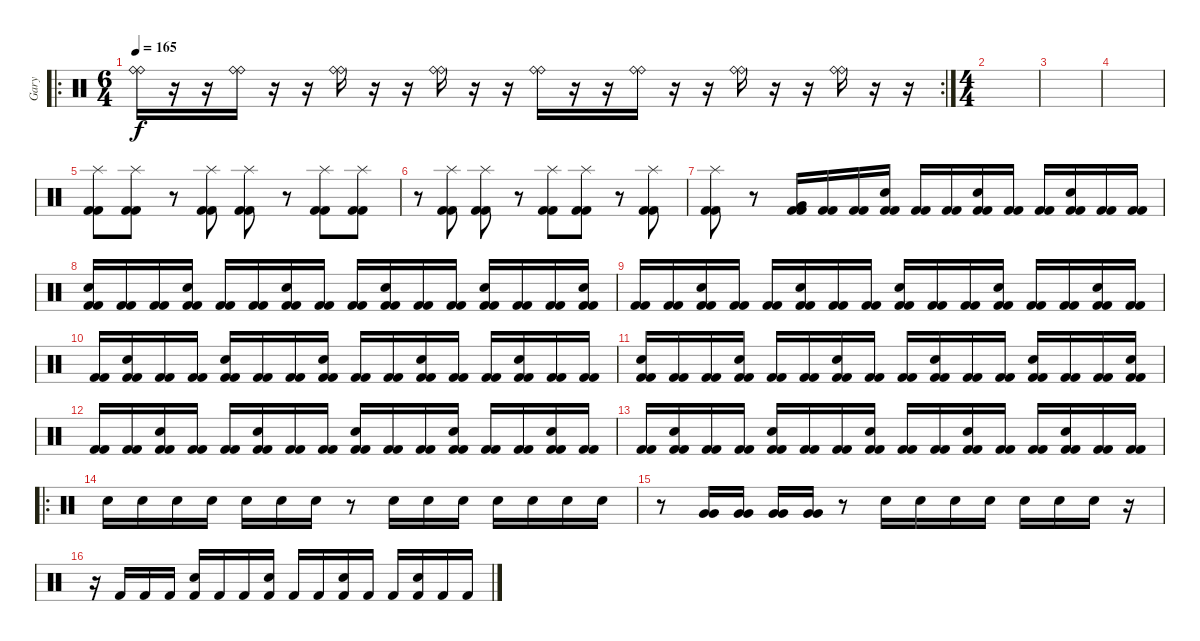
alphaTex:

\track ("Gary" "Gary") {instrument percussion}
\staff {score}
\articulation defaults
\ro
\rc 2
\ts (6 4)
\tempo 165
\clef neutral
\ks c
("Ride (bell)" "Ride (bell)").16{dy f} r.16 r.16 ("Ride (bell)" "Ride (bell)").16 r.16 r.16 ("Ride (bell)" "Ride (bell)").16 r.16 r.16 ("Ride (bell)" "Ride (bell)").16 r.16 r.16 ("Ride (bell)" "Ride (bell)").16 r.16 r.16 ("Ride (bell)" "Ride (bell)").16 r.16 r.16 ("Ride (bell)" "Ride (bell)").16 r.16 r.16 ("Ride (bell)" "Ride (bell)").16 r.16 r.16 |
\ts (4 4)
|
|
|
("Splash (hit)" "Kick (hit) 2" "Kick (hit) 2").8 ("Splash (hit)" "Kick (hit) 2" "Kick (hit) 2").8 r.8 ("Splash (hit)" "Kick (hit) 2" "Kick (hit) 2").8 ("Splash (hit)" "Kick (hit) 2" "Kick (hit) 2").8 r.8 ("Splash (hit)" "Kick (hit) 2" "Kick (hit) 2").8 ("Splash (hit)" "Kick (hit) 2" "Kick (hit) 2").8 |
r.8 ("Splash (hit)" "Kick (hit) 2" "Kick (hit) 2").8 ("Splash (hit)" "Kick (hit) 2" "Kick (hit) 2").8 r.8 ("Splash (hit)" "Kick (hit) 2" "Kick (hit) 2").8 ("Splash (hit)" "Kick (hit) 2" "Kick (hit) 2").8 r.8 ("Splash (hit)" "Kick (hit) 2" "Kick (hit) 2").8 |
("Splash (hit)" "Kick (hit) 2" "Kick (hit) 2").8 r.8 ("Kick (hit) 2" "Very Low Tom (hit)" "Kick (hit) 2").16 ("Kick (hit) 2" "Kick (hit) 2").16 ("Kick (hit) 2" "Kick (hit) 2").16 ("Kick (hit) 2" "Electric Snare (hit)" "Kick (hit) 2").16 ("Kick (hit) 2" "Kick (hit) 2").16 ("Kick (hit) 2" "Kick (hit) 2").16 ("Kick (hit) 2" "Snare (hit) 2" "Kick (hit) 2").16 ("Kick (hit) 2" "Kick (hit) 2").16 ("Kick (hit) 2" "Kick (hit) 2").16 ("Kick (hit) 2" "Snare (hit) 2" "Kick (hit) 2").16 ("Kick (hit) 2" "Kick (hit) 2").16 ("Kick (hit) 2" "Kick (hit) 2").16 |
("Kick (hit) 2" "Snare (hit) 2" "Kick (hit) 2").16 ("Kick (hit) 2" "Kick (hit) 2").16 ("Kick (hit) 2" "Kick (hit) 2").16 ("Kick (hit) 2" "Snare (hit) 2" "Kick (hit) 2").16 ("Kick (hit) 2" "Kick (hit) 2").16 ("Kick (hit) 2" "Kick (hit) 2").16 ("Kick (hit) 2" "Snare (hit) 2" "Kick (hit) 2").16 ("Kick (hit) 2" "Kick (hit) 2").16 ("Kick (hit) 2" "Kick (hit) 2").16 ("Kick (hit) 2" "Snare (hit) 2" "Kick (hit) 2").16 ("Kick (hit) 2" "Kick (hit) 2").16 ("Kick (hit) 2" "Kick (hit) 2").16 ("Kick (hit) 2" "Snare (hit) 2" "Kick (hit) 2").16 ("Kick (hit) 2" "Kick (hit) 2").16 ("Kick (hit) 2" "Kick (hit) 2").16 ("Kick (hit) 2" "Snare (hit) 2" "Kick (hit) 2").16 |
("Kick (hit) 2" "Kick (hit) 2").16 ("Kick (hit) 2" "Kick (hit) 2").16 ("Kick (hit) 2" "Snare (hit) 2" "Kick (hit) 2").16 ("Kick (hit) 2" "Kick (hit) 2").16 ("Kick (hit) 2" "Kick (hit) 2").16 ("Kick (hit) 2" "Snare (hit) 2" "Kick (hit) 2").16 ("Kick (hit) 2" "Kick (hit) 2").16 ("Kick (hit) 2" "Kick (hit) 2").16 ("Kick (hit) 2" "Snare (hit) 2" "Kick (hit) 2").16 ("Kick (hit) 2" "Kick (hit) 2").16 ("Kick (hit) 2" "Kick (hit) 2").16 ("Kick (hit) 2" "Snare (hit) 2" "Kick (hit) 2").16 ("Kick (hit) 2" "Kick (hit) 2").16 ("Kick (hit) 2" "Kick (hit) 2").16 ("Kick (hit) 2" "Snare (hit) 2" "Kick (hit) 2").16 ("Kick (hit) 2" "Kick (hit) 2").16 |
("Kick (hit) 2" "Kick (hit) 2").16 ("Kick (hit) 2" "Snare (hit) 2" "Kick (hit) 2").16 ("Kick (hit) 2" "Kick (hit) 2").16 ("Kick (hit) 2" "Kick (hit) 2").16 ("Kick (hit) 2" "Snare (hit) 2" "Kick (hit) 2").16 ("Kick (hit) 2" "Kick (hit) 2").16 ("Kick (hit) 2" "Kick (hit) 2").16 ("Kick (hit) 2" "Snare (hit) 2" "Kick (hit) 2").16 ("Kick (hit) 2" "Kick (hit) 2").16 ("Kick (hit) 2" "Kick (hit) 2").16 ("Kick (hit) 2" "Snare (hit) 2" "Kick (hit) 2").16 ("Kick (hit) 2" "Kick (hit) 2").16 ("Kick (hit) 2" "Kick (hit) 2").16 ("Kick (hit) 2" "Snare (hit) 2" "Kick (hit) 2").16 ("Kick (hit) 2" "Kick (hit) 2").16 ("Kick (hit) 2" "Kick (hit) 2").16 |
("Kick (hit) 2" "Snare (hit) 2" "Kick (hit) 2").16 ("Kick (hit) 2" "Kick (hit) 2").16 ("Kick (hit) 2" "Kick (hit) 2").16 ("Kick (hit) 2" "Snare (hit) 2" "Kick (hit) 2").16 ("Kick (hit) 2" "Kick (hit) 2").16 ("Kick (hit) 2" "Kick (hit) 2").16 ("Kick (hit) 2" "Snare (hit) 2" "Kick (hit) 2").16 ("Kick (hit) 2" "Kick (hit) 2").16 ("Kick (hit) 2" "Kick (hit) 2").16 ("Kick (hit) 2" "Snare (hit) 2" "Kick (hit) 2").16 ("Kick (hit) 2" "Kick (hit) 2").16 ("Kick (hit) 2" "Kick (hit) 2").16 ("Kick (hit) 2" "Snare (hit) 2" "Kick (hit) 2").16 ("Kick (hit) 2" "Kick (hit) 2").16 ("Kick (hit) 2" "Kick (hit) 2").16 ("Kick (hit) 2" "Snare (hit) 2" "Kick (hit) 2").16 |
("Kick (hit) 2" "Kick (hit) 2").16 ("Kick (hit) 2" "Kick (hit) 2").16 ("Kick (hit) 2" "Snare (hit) 2" "Kick (hit) 2").16 ("Kick (hit) 2" "Kick (hit) 2").16 ("Kick (hit) 2" "Kick (hit) 2").16 ("Kick (hit) 2" "Snare (hit) 2" "Kick (hit) 2").16 ("Kick (hit) 2" "Kick (hit) 2").16 ("Kick (hit) 2" "Kick (hit) 2").16 ("Kick (hit) 2" "Snare (hit) 2" "Kick (hit) 2").16 ("Kick (hit) 2" "Kick (hit) 2").16 ("Kick (hit) 2" "Kick (hit) 2").16 ("Kick (hit) 2" "Snare (hit) 2" "Kick (hit) 2").16 ("Kick (hit) 2" "Kick (hit) 2").16 ("Kick (hit) 2" "Kick (hit) 2").16 ("Kick (hit) 2" "Snare (hit) 2" "Kick (hit) 2").16 ("Kick (hit) 2" "Kick (hit) 2").16 |
("Kick (hit) 2" "Kick (hit) 2").16 ("Kick (hit) 2" "Snare (hit) 2" "Kick (hit) 2").16 ("Kick (hit) 2" "Kick (hit) 2").16 ("Kick (hit) 2" "Kick (hit) 2").16 ("Kick (hit) 2" "Snare (hit) 2" "Kick (hit) 2").16 ("Kick (hit) 2" "Kick (hit) 2").16 ("Kick (hit) 2" "Kick (hit) 2").16 ("Kick (hit) 2" "Snare (hit) 2" "Kick (hit) 2").16 ("Kick (hit) 2" "Kick (hit) 2").16 ("Kick (hit) 2" "Kick (hit) 2").16 ("Kick (hit) 2" "Snare (hit) 2" "Kick (hit) 2").16 ("Kick (hit) 2" "Kick (hit) 2").16 ("Kick (hit) 2" "Kick (hit) 2").16 ("Kick (hit) 2" "Snare (hit) 2" "Kick (hit) 2").16 ("Kick (hit) 2" "Kick (hit) 2").16 ("Kick (hit) 2" "Kick (hit) 2").16 |
\ro "Snare (hit) 2".16 "Snare (hit) 2".16 "Snare (hit) 2".16 "Snare (hit) 2".16 "Snare (hit) 2".16 "Snare (hit) 2".16 "Snare (hit) 2".16
r.8 "Snare (hit) 2".16 "Snare (hit) 2".16 "Snare (hit) 2".16 "Snare (hit) 2".16 "Snare (hit) 2".16 "Snare (hit) 2".16 "Snare (hit) 2".16 |
r.8 ("Very Low Tom (hit)" "Very Low Tom (hit)").16 ("Very Low Tom (hit)" "Very Low Tom (hit)").16 ("Very Low Tom (hit)" "Very Low Tom (hit)").16 ("Very Low Tom (hit)" "Very Low Tom (hit)").16 r.8 "Snare (hit) 2".16 "Snare (hit) 2".16 "Snare (hit) 2".16 "Snare (hit) 2".16 "Snare (hit) 2".16 "Snare (hit) 2".16 "Snare (hit) 2".16 r.16 |
r.16 "Kick (hit) 2".16 "Kick (hit) 2".16 "Kick (hit) 2".16 ("Snare (hit) 2" "Kick (hit) 2").16 "Kick (hit) 2".16 "Kick (hit) 2".16 ("Snare (hit) 2" "Kick (hit) 2").16 "Kick (hit) 2".16 "Kick (hit) 2".16 ("Snare (hit) 2" "Kick (hit) 2").16 "Kick (hit) 2".16 "Kick (hit) 2".16 ("Snare (hit) 2" "Kick (hit) 2").16 "Kick (hit) 2".16 "Kick (hit) 2".16
